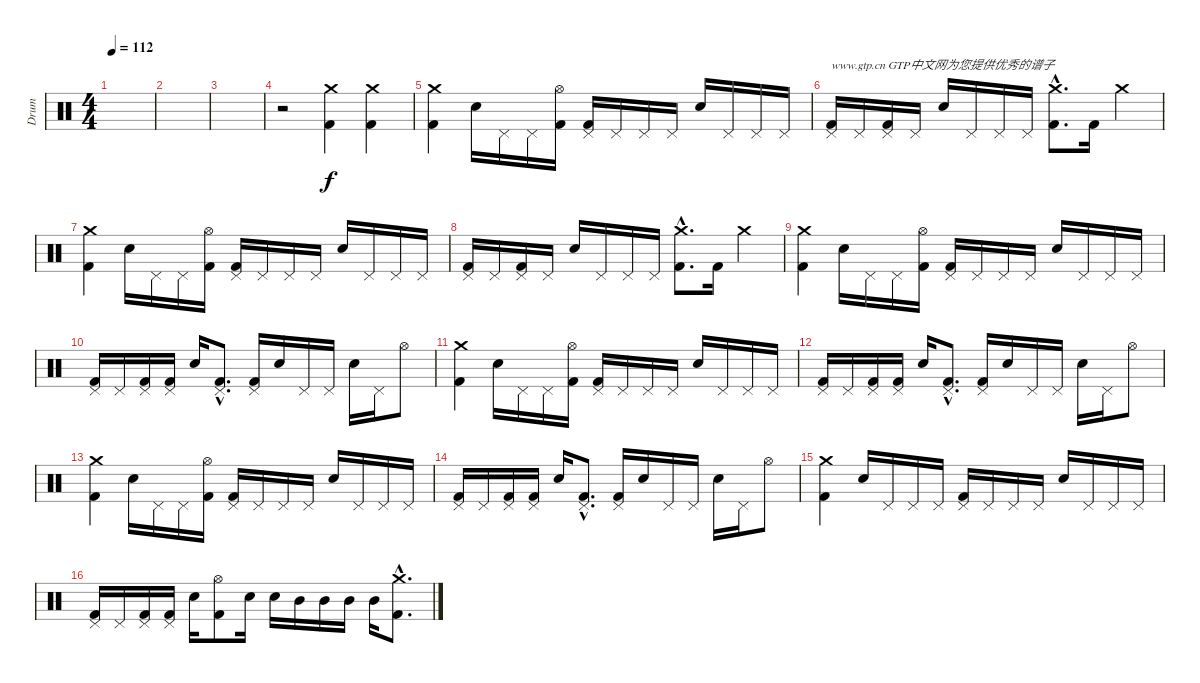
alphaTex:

\track ("Drum" "Drum") {instrument percussion}
\staff {score}
\articulation defaults
\ts (4 4)
\tempo 112
\clef neutral
\ks c
|
|
|
r.2 ("Crash medium (hit)" "Kick (hit) 2").4 ("Crash medium (hit)" "Kick (hit) 2").4 |
("Crash medium (hit)" "Kick (hit) 2").4 "Electric Snare (hit)".16 "Pedal Hi-Hat (hit)".16 "Pedal Hi-Hat (hit)".16 ("Hi-Hat (open)" "Kick (hit) 2").16 ("Pedal Hi-Hat (hit)" "Kick (hit) 2").16 "Pedal Hi-Hat (hit)".16 "Pedal Hi-Hat (hit)".16 "Pedal Hi-Hat (hit)".16 "Electric Snare (hit)".16 "Pedal Hi-Hat (hit)".16 "Pedal Hi-Hat (hit)".16 "Pedal Hi-Hat (hit)".16 |
("Pedal Hi-Hat (hit)" "Kick (hit) 2").16{txt "www.gtp.cn GTP中文网为您提供优秀的谱子"} "Pedal Hi-Hat (hit)".16 ("Pedal Hi-Hat (hit)" "Kick (hit) 2").16 "Pedal Hi-Hat (hit)".16 "Electric Snare (hit)".16 "Pedal Hi-Hat (hit)".16 "Pedal Hi-Hat (hit)".16 "Pedal Hi-Hat (hit)".16 ("Crash medium (hit)"{hac} "Kick (hit) 2"{hac}).8{d} "Kick (hit) 2".16 "Crash medium (hit)".4 |
("Crash medium (hit)" "Kick (hit) 2").4 "Electric Snare (hit)".16 "Pedal Hi-Hat (hit)".16 "Pedal Hi-Hat (hit)".16 ("Hi-Hat (open)" "Kick (hit) 2").16 ("Pedal Hi-Hat (hit)" "Kick (hit) 2").16 "Pedal Hi-Hat (hit)".16 "Pedal Hi-Hat (hit)".16 "Pedal Hi-Hat (hit)".16 "Electric Snare (hit)".16 "Pedal Hi-Hat (hit)".16 "Pedal Hi-Hat (hit)".16 "Pedal Hi-Hat (hit)".16 |
("Pedal Hi-Hat (hit)" "Kick (hit) 2").16 "Pedal Hi-Hat (hit)".16 ("Pedal Hi-Hat (hit)" "Kick (hit) 2").16 "Pedal Hi-Hat (hit)".16 "Electric Snare (hit)".16 "Pedal Hi-Hat (hit)".16 "Pedal Hi-Hat (hit)".16 "Pedal Hi-Hat (hit)".16 ("Crash medium (hit)"{hac} "Kick (hit) 2"{hac}).8{d} "Kick (hit) 2".16 "Crash medium (hit)".4 |
("Crash medium (hit)" "Kick (hit) 2").4 "Electric Snare (hit)".16 "Pedal Hi-Hat (hit)".16 "Pedal Hi-Hat (hit)".16 ("Hi-Hat (open)" "Kick (hit) 2").16 ("Pedal Hi-Hat (hit)" "Kick (hit) 2").16 "Pedal Hi-Hat (hit)".16 "Pedal Hi-Hat (hit)".16 "Pedal Hi-Hat (hit)".16 "Electric Snare (hit)".16 "Pedal Hi-Hat (hit)".16 "Pedal Hi-Hat (hit)".16 "Pedal Hi-Hat (hit)".16 |
("Pedal Hi-Hat (hit)" "Kick (hit) 2").16 "Pedal Hi-Hat (hit)".16 ("Pedal Hi-Hat (hit)" "Kick (hit) 2").16 ("Pedal Hi-Hat (hit)" "Kick (hit) 2").16 "Electric Snare (hit)".16 ("Pedal Hi-Hat (hit)"{hac} "Kick (hit) 2"{hac}).8{d} ("Pedal Hi-Hat (hit)" "Kick (hit) 2").16 "Electric Snare (hit)".16 "Pedal Hi-Hat (hit)".16 "Pedal Hi-Hat (hit)".16 "Electric Snare (hit)".16 "Pedal Hi-Hat (hit)".16 "Hi-Hat (open)".8 |
("Crash medium (hit)" "Kick (hit) 2").4 "Electric Snare (hit)".16 "Pedal Hi-Hat (hit)".16 "Pedal Hi-Hat (hit)".16 ("Hi-Hat (open)" "Kick (hit) 2").16 ("Pedal Hi-Hat (hit)" "Kick (hit) 2").16 "Pedal Hi-Hat (hit)".16 "Pedal Hi-Hat (hit)".16 "Pedal Hi-Hat (hit)".16 "Electric Snare (hit)".16 "Pedal Hi-Hat (hit)".16 "Pedal Hi-Hat (hit)".16 "Pedal Hi-Hat (hit)".16 |
("Pedal Hi-Hat (hit)" "Kick (hit) 2").16 "Pedal Hi-Hat (hit)".16 ("Pedal Hi-Hat (hit)" "Kick (hit) 2").16 ("Pedal Hi-Hat (hit)" "Kick (hit) 2").16 "Electric Snare (hit)".16 ("Pedal Hi-Hat (hit)"{hac} "Kick (hit) 2"{hac}).8{d} ("Pedal Hi-Hat (hit)" "Kick (hit) 2").16 "Electric Snare (hit)".16 "Pedal Hi-Hat (hit)".16 "Pedal Hi-Hat (hit)".16 "Electric Snare (hit)".16 "Pedal Hi-Hat (hit)".16 "Hi-Hat (open)".8 |
("Crash medium (hit)" "Kick (hit) 2").4 "Electric Snare (hit)".16 "Pedal Hi-Hat (hit)".16 "Pedal Hi-Hat (hit)".16 ("Hi-Hat (open)" "Kick (hit) 2").16 ("Pedal Hi-Hat (hit)" "Kick (hit) 2").16 "Pedal Hi-Hat (hit)".16 "Pedal Hi-Hat (hit)".16 "Pedal Hi-Hat (hit)".16 "Electric Snare (hit)".16 "Pedal Hi-Hat (hit)".16 "Pedal Hi-Hat (hit)".16 "Pedal Hi-Hat (hit)".16 |
("Pedal Hi-Hat (hit)" "Kick (hit) 2").16 "Pedal Hi-Hat (hit)".16 ("Pedal Hi-Hat (hit)" "Kick (hit) 2").16 ("Pedal Hi-Hat (hit)" "Kick (hit) 2").16 "Electric Snare (hit)".16 ("Pedal Hi-Hat (hit)"{hac} "Kick (hit) 2"{hac}).8{d} ("Pedal Hi-Hat (hit)" "Kick (hit) 2").16 "Electric Snare (hit)".16 "Pedal Hi-Hat (hit)".16 "Pedal Hi-Hat (hit)".16 "Electric Snare (hit)".16 "Pedal Hi-Hat (hit)".16 "Hi-Hat (open)".8 |
("Crash medium (hit)" "Kick (hit) 2").4 "Electric Snare (hit)".16 "Pedal Hi-Hat (hit)".16 "Pedal Hi-Hat (hit)".16 "Pedal Hi-Hat (hit)".16 ("Pedal Hi-Hat (hit)" "Kick (hit) 2").16 "Pedal Hi-Hat (hit)".16 "Pedal Hi-Hat (hit)".16 "Pedal Hi-Hat (hit)".16 "Electric Snare (hit)".16 "Pedal Hi-Hat (hit)".16 "Pedal Hi-Hat (hit)".16 "Pedal Hi-Hat (hit)".16 |
("Pedal Hi-Hat (hit)" "Kick (hit) 2").16 "Pedal Hi-Hat (hit)".16 ("Pedal Hi-Hat (hit)" "Kick (hit) 2").16 ("Pedal Hi-Hat (hit)" "Kick (hit) 2").16 "Electric Snare (hit)".16 ("Hi-Hat (open)" "Kick (hit) 2").8 "Electric Snare (hit)".16 "Electric Snare (hit)".16 "Mid Tom (hit)".16 "Mid Tom (hit)".16 "Mid Tom (hit)".16 "Mid Tom (hit)".16 ("Crash medium (hit)"{hac} "Kick (hit) 2"{hac}).8{d}
